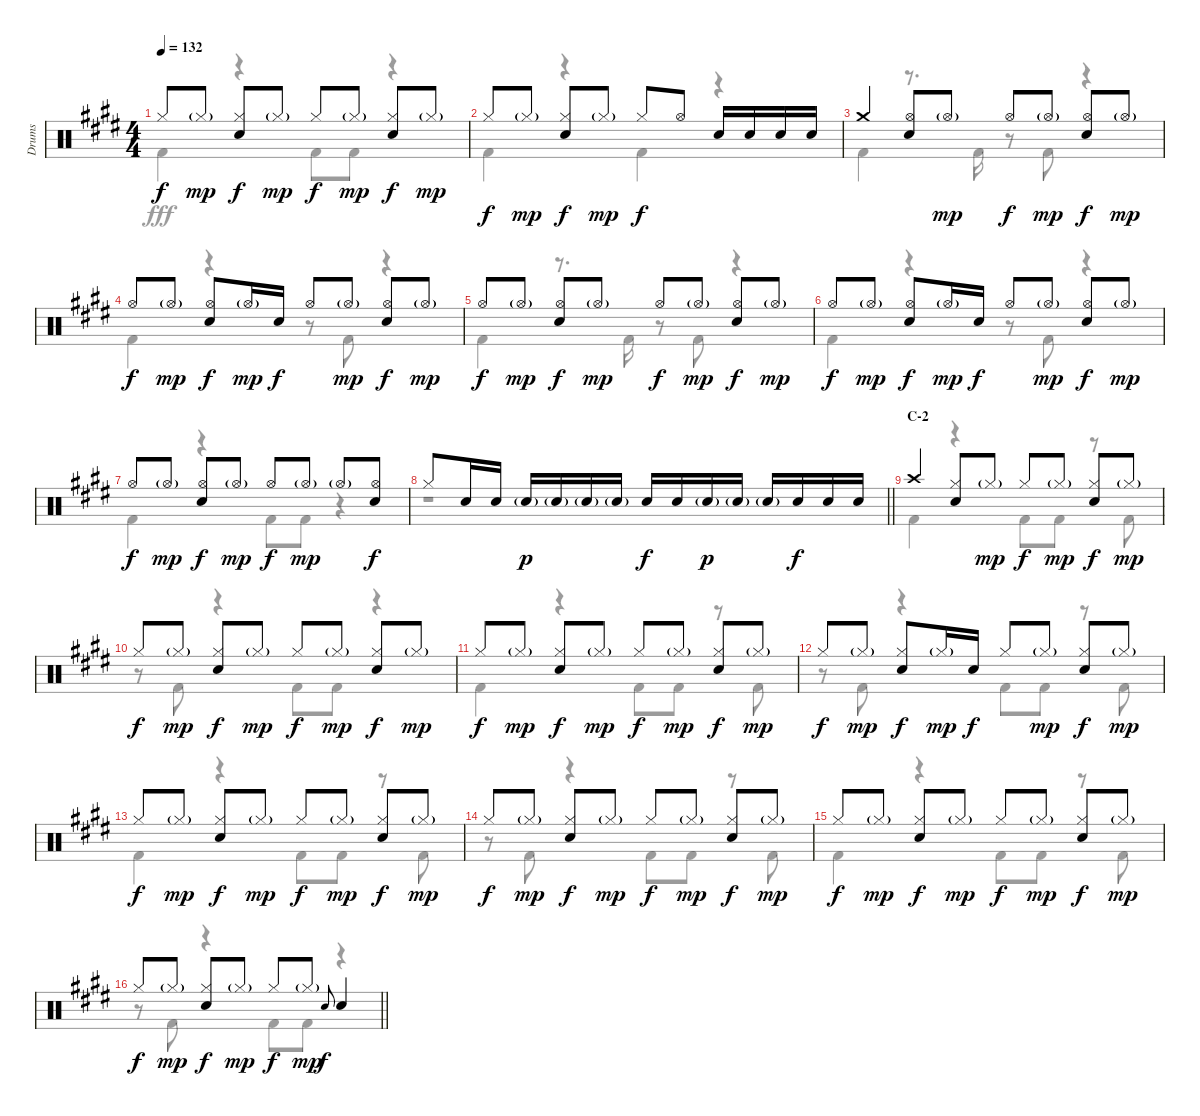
\track ("Drums" "Drums") {instrument percussion}
\staff {score}
\articulation defaults
\voice
\ts (4 4)
\tempo 132
\clef neutral
\ks e "Hi-Hat (closed)".8{dy f} "Hi-Hat (closed)"{g}.8{dy mp}
("Hi-Hat (closed)" "Snare (hit) 2").8{dy f} "Hi-Hat (closed)"{g}.8{dy mp} "Hi-Hat (closed)".8{dy f} "Hi-Hat (closed)"{g}.8{dy mp} ("Hi-Hat (closed)" "Snare (hit) 2").8{dy f} "Hi-Hat (closed)"{g}.8{dy mp} |
"Hi-Hat (closed)".8{dy f} "Hi-Hat (closed)"{g}.8{dy mp} ("Hi-Hat (closed)" "Snare (hit) 2").8{dy f} "Hi-Hat (closed)"{g}.8{dy mp} "Hi-Hat (closed)".8{dy f} "Hi-Hat (open)".8 "Snare (hit) 2".16 "Snare (hit) 2".16 "Snare (hit) 2".16 "Snare (hit) 2".16 |
"Crash medium (hit)".4 ("Hi-Hat (open)" "Snare (hit) 2").8 "Hi-Hat (open)"{g}.8{dy mp} "Hi-Hat (open)".8{dy f} "Hi-Hat (open)"{g}.8{dy mp} ("Hi-Hat (open)" "Snare (hit) 2").8{dy f} "Hi-Hat (open)"{g}.8{dy mp} |
"Hi-Hat (open)".8{dy f} "Hi-Hat (open)"{g}.8{dy mp} ("Hi-Hat (open)" "Snare (hit) 2").8{dy f} "Hi-Hat (open)"{g}.16{dy mp} "Snare (hit) 2".16{dy f} "Hi-Hat (open)".8 "Hi-Hat (open)"{g}.8{dy mp} ("Hi-Hat (open)" "Snare (hit) 2").8{dy f} "Hi-Hat (open)"{g}.8{dy mp} |
"Hi-Hat (open)".8{dy f} "Hi-Hat (open)"{g}.8{dy mp} ("Hi-Hat (open)" "Snare (hit) 2").8{dy f} "Hi-Hat (open)"{g}.8{dy mp} "Hi-Hat (open)".8{dy f} "Hi-Hat (open)"{g}.8{dy mp} ("Hi-Hat (open)" "Snare (hit) 2").8{dy f} "Hi-Hat (open)"{g}.8{dy mp} |
"Hi-Hat (open)".8{dy f} "Hi-Hat (open)"{g}.8{dy mp} ("Hi-Hat (open)" "Snare (hit) 2").8{dy f} "Hi-Hat (open)"{g}.16{dy mp} "Snare (hit) 2".16{dy f} "Hi-Hat (open)".8 "Hi-Hat (open)"{g}.8{dy mp} ("Hi-Hat (open)" "Snare (hit) 2").8{dy f} "Hi-Hat (open)"{g}.8{dy mp} |
"Hi-Hat (open)".8{dy f} "Hi-Hat (open)"{g}.8{dy mp} ("Hi-Hat (open)" "Snare (hit) 2").8{dy f} "Hi-Hat (open)"{g}.8{dy mp} "Hi-Hat (open)".8{dy f} "Hi-Hat (open)"{g}.8{dy mp} "Hi-Hat (open)"{g}.8 ("Hi-Hat (open)" "Snare (hit) 2").8{dy f} |
\barLineRight lightlight "Hi-Hat (closed)".8 "Snare (hit) 2".16 "Snare (hit) 2".16 "Snare (hit) 2"{g}.16{dy p} "Snare (hit) 2"{g}.16 "Snare (hit) 2"{g}.16 "Snare (hit) 2"{g}.16 "Snare (hit) 2".16{dy f} "Snare (hit) 2".16 "Snare (hit) 2"{g}.16{dy p} "Snare (hit) 2"{g}.16 "Snare (hit) 2"{g}.16 "Snare (hit) 2".16{dy f} "Snare (hit) 2".16 "Snare (hit) 2".16
|
\section ("" "C-2")
"Crash high (hit)".4 ("Hi-Hat (closed)" "Snare (hit) 2").8 "Hi-Hat (closed)"{g}.8{dy mp} "Hi-Hat (closed)".8{dy f} "Hi-Hat (closed)"{g}.8{dy mp} ("Hi-Hat (closed)" "Snare (hit) 2").8{dy f} "Hi-Hat (closed)"{g}.8{dy mp} |
"Hi-Hat (closed)".8{dy f} "Hi-Hat (closed)"{g}.8{dy mp} ("Hi-Hat (closed)" "Snare (hit) 2").8{dy f} "Hi-Hat (closed)"{g}.8{dy mp} "Hi-Hat (closed)".8{dy f} "Hi-Hat (closed)"{g}.8{dy mp} ("Hi-Hat (closed)" "Snare (hit) 2").8{dy f} "Hi-Hat (closed)"{g}.8{dy mp} |
"Hi-Hat (closed)".8{dy f} "Hi-Hat (closed)"{g}.8{dy mp} ("Hi-Hat (closed)" "Snare (hit) 2").8{dy f} "Hi-Hat (closed)"{g}.8{dy mp} "Hi-Hat (closed)".8{dy f} "Hi-Hat (closed)"{g}.8{dy mp} ("Hi-Hat (closed)" "Snare (hit) 2").8{dy f} "Hi-Hat (closed)"{g}.8{dy mp} |
"Hi-Hat (closed)".8{dy f} "Hi-Hat (closed)"{g}.8{dy mp} ("Hi-Hat (closed)" "Snare (hit) 2").8{dy f} "Hi-Hat (closed)"{g}.16{dy mp} "Snare (hit) 2".16{dy f} "Hi-Hat (closed)".8 "Hi-Hat (closed)"{g}.8{dy mp} ("Hi-Hat (closed)" "Snare (hit) 2").8{dy f} "Hi-Hat (closed)"{g}.8{dy mp} |
"Hi-Hat (closed)".8{dy f} "Hi-Hat (closed)"{g}.8{dy mp} ("Hi-Hat (closed)" "Snare (hit) 2").8{dy f} "Hi-Hat (closed)"{g}.8{dy mp} "Hi-Hat (closed)".8{dy f} "Hi-Hat (closed)"{g}.8{dy mp} ("Hi-Hat (closed)" "Snare (hit) 2").8{dy f} "Hi-Hat (closed)"{g}.8{dy mp} |
"Hi-Hat (closed)".8{dy f} "Hi-Hat (closed)"{g}.8{dy mp} ("Hi-Hat (closed)" "Snare (hit) 2").8{dy f} "Hi-Hat (closed)"{g}.8{dy mp} "Hi-Hat (closed)".8{dy f} "Hi-Hat (closed)"{g}.8{dy mp} ("Hi-Hat (closed)" "Snare (hit) 2").8{dy f} "Hi-Hat (closed)"{g}.8{dy mp} |
"Hi-Hat (closed)".8{dy f} "Hi-Hat (closed)"{g}.8{dy mp} ("Hi-Hat (closed)" "Snare (hit) 2").8{dy f} "Hi-Hat (closed)"{g}.8{dy mp} "Hi-Hat (closed)".8{dy f} "Hi-Hat (closed)"{g}.8{dy mp} ("Hi-Hat (closed)" "Snare (hit) 2").8{dy f} "Hi-Hat (closed)"{g}.8{dy mp} |
\barLineRight lightlight "Hi-Hat (closed)".8{dy f} "Hi-Hat (closed)"{g}.8{dy mp}
("Hi-Hat (closed)" "Snare (hit) 2").8{dy f} "Hi-Hat (closed)"{g}.8{dy mp} "Hi-Hat (closed)".8{dy f} "Hi-Hat (closed)"{g}.8{dy mp} "Snare (hit) 2".8{gr onbeat dy f} "Snare (hit) 2".4
\voice
\clef neutral
\ottava regular
\simile none
\ks e "Kick (hit) 2".4{dy fff}
r.4 "Kick (hit) 2".8 "Kick (hit) 2".8 r.4 |
"Kick (hit) 2".4 r.4 "Kick (hit) 2".4 r.4 |
"Kick (hit) 2".4 r.8{d} "Kick (hit) 2".16 r.8 "Kick (hit) 2".8 r.4 |
"Kick (hit) 2".4 r.4 r.8 "Kick (hit) 2".8 r.4 |
"Kick (hit) 2".4 r.8{d} "Kick (hit) 2".16 r.8 "Kick (hit) 2".8 r.4 |
"Kick (hit) 2".4 r.4 r.8 "Kick (hit) 2".8 r.4 |
"Kick (hit) 2".4 r.4 "Kick (hit) 2".8 "Kick (hit) 2".8 r.4 |
\barLineRight lightlight
r.1 |
"Kick (hit) 2".4 r.4 "Kick (hit) 2".8 "Kick (hit) 2".8 r.8 "Kick (hit) 2".8 |
r.8 "Kick (hit) 2".8 r.4 "Kick (hit) 2".8 "Kick (hit) 2".8 r.4 |
"Kick (hit) 2".4 r.4 "Kick (hit) 2".8 "Kick (hit) 2".8 r.8 "Kick (hit) 2".8 |
r.8 "Kick (hit) 2".8 r.4 "Kick (hit) 2".8 "Kick (hit) 2".8 r.8 "Kick (hit) 2".8 |
"Kick (hit) 2".4 r.4 "Kick (hit) 2".8 "Kick (hit) 2".8 r.8 "Kick (hit) 2".8 |
r.8 "Kick (hit) 2".8 r.4 "Kick (hit) 2".8 "Kick (hit) 2".8 r.8 "Kick (hit) 2".8 |
"Kick (hit) 2".4 r.4 "Kick (hit) 2".8 "Kick (hit) 2".8 r.8 "Kick (hit) 2".8 |
\barLineRight lightlight
r.8 "Kick (hit) 2".8 r.4 "Kick (hit) 2".8 "Kick (hit) 2".8 r.4
